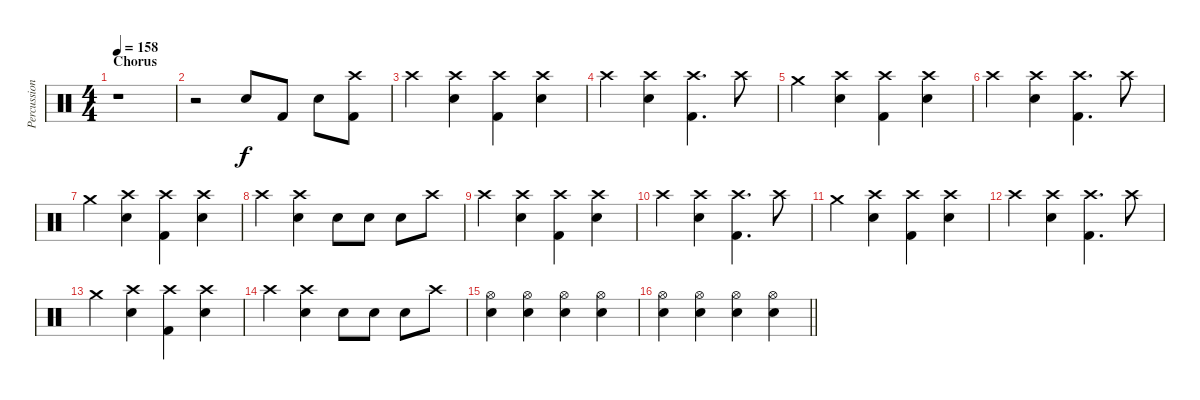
\track ("Percussion" "Percussion") {instrument percussion}
\staff {score}
\articulation defaults
\ts (4 4)
\section ("" "Chorus")
\tempo 158
\clef neutral
\ks c
r.1{dy f} |
r.2 "Electric Snare (hit)".8 "Kick (hit) 2".8 "Electric Snare (hit)".8 ("Crash high (hit)" "Kick (hit) 2").8 |
"Crash high (hit)".4 ("Crash high (hit)" "Electric Snare (hit)").4 ("Crash high (hit)" "Kick (hit) 2").4 ("Crash high (hit)" "Electric Snare (hit)").4 |
"Crash high (hit)".4 ("Crash high (hit)" "Electric Snare (hit)").4 ("Crash high (hit)" "Kick (hit) 2").4{d} "Crash high (hit)".8 |
"Crash medium (hit)".4 ("Crash high (hit)" "Electric Snare (hit)").4 ("Crash high (hit)" "Kick (hit) 2").4 ("Crash high (hit)" "Electric Snare (hit)").4 |
"Crash high (hit)".4 ("Crash high (hit)" "Electric Snare (hit)").4 ("Crash high (hit)" "Kick (hit) 2").4{d} "Crash high (hit)".8 |
"Crash medium (hit)".4 ("Crash high (hit)" "Electric Snare (hit)").4 ("Crash high (hit)" "Kick (hit) 2").4 ("Crash high (hit)" "Electric Snare (hit)").4 |
"Crash high (hit)".4 ("Crash high (hit)" "Electric Snare (hit)").4 "Electric Snare (hit)".8 "Electric Snare (hit)".8 "Electric Snare (hit)".8 "Crash high (hit)".8 |
"Crash high (hit)".4 ("Crash high (hit)" "Electric Snare (hit)").4 ("Crash high (hit)" "Kick (hit) 2").4 ("Crash high (hit)" "Electric Snare (hit)").4 |
"Crash high (hit)".4 ("Crash high (hit)" "Electric Snare (hit)").4 ("Crash high (hit)" "Kick (hit) 2").4{d} "Crash high (hit)".8 |
"Crash medium (hit)".4 ("Crash high (hit)" "Electric Snare (hit)").4 ("Crash high (hit)" "Kick (hit) 2").4 ("Crash high (hit)" "Electric Snare (hit)").4 |
"Crash high (hit)".4 ("Crash high (hit)" "Electric Snare (hit)").4 ("Crash high (hit)" "Kick (hit) 2").4{d} "Crash high (hit)".8 |
"Crash medium (hit)".4 ("Crash high (hit)" "Electric Snare (hit)").4 ("Crash high (hit)" "Kick (hit) 2").4 ("Crash high (hit)" "Electric Snare (hit)").4 |
"Crash high (hit)".4 ("Crash high (hit)" "Electric Snare (hit)").4 "Electric Snare (hit)".8 "Electric Snare (hit)".8 "Electric Snare (hit)".8 "Crash high (hit)".8 |
("Hi-Hat (open)" "Electric Snare (hit)").4 ("Hi-Hat (open)" "Electric Snare (hit)").4 ("Hi-Hat (open)" "Electric Snare (hit)").4 ("Hi-Hat (open)" "Electric Snare (hit)").4 |
\barLineRight lightlight
("Hi-Hat (open)" "Electric Snare (hit)").4 ("Hi-Hat (open)" "Electric Snare (hit)").4 ("Hi-Hat (open)" "Electric Snare (hit)").4 ("Hi-Hat (open)" "Electric Snare (hit)").4
